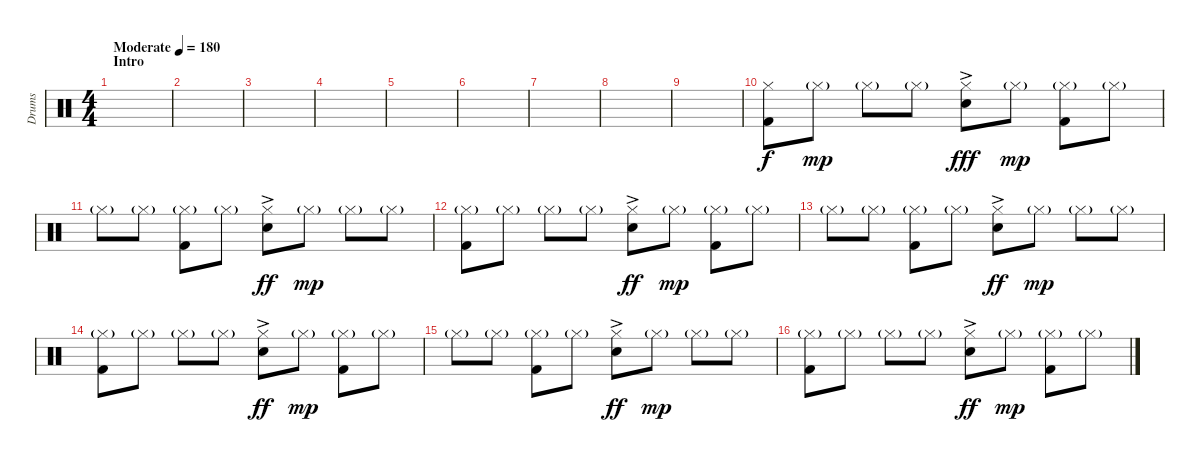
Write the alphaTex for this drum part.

\track ("Drums" "Drums") {instrument percussion}
\staff {score}
\articulation defaults
\ts (4 4)
\section ("" "Intro")
\tempo (180 "Moderate")
\clef neutral
\ks c
|
|
|
|
|
|
|
|
|
("Hi-Hat (closed)" "Kick (hit) 2").8 "Hi-Hat (closed)"{g}.8{dy mp} "Hi-Hat (closed)"{g}.8 "Hi-Hat (closed)"{g}.8 ("Hi-Hat (closed)"{ac} "Snare (hit) 2"{ac}).8{dy fff} "Hi-Hat (closed)"{g}.8{dy mp} ("Hi-Hat (closed)"{g} "Kick (hit) 2").8 "Hi-Hat (closed)"{g}.8 |
"Hi-Hat (closed)"{g}.8 "Hi-Hat (closed)"{g}.8 ("Hi-Hat (closed)"{g} "Kick (hit) 2").8 "Hi-Hat (closed)"{g}.8 ("Hi-Hat (closed)"{ac} "Snare (hit) 2"{ac}).8{dy ff} "Hi-Hat (closed)"{g}.8{dy mp} "Hi-Hat (closed)"{g}.8 "Hi-Hat (closed)"{g}.8 |
("Hi-Hat (closed)"{g} "Kick (hit) 2").8 "Hi-Hat (closed)"{g}.8 "Hi-Hat (closed)"{g}.8 "Hi-Hat (closed)"{g}.8 ("Hi-Hat (closed)"{ac} "Snare (hit) 2"{ac}).8{dy ff} "Hi-Hat (closed)"{g}.8{dy mp} ("Hi-Hat (closed)"{g} "Kick (hit) 2").8 "Hi-Hat (closed)"{g}.8 |
"Hi-Hat (closed)"{g}.8 "Hi-Hat (closed)"{g}.8 ("Hi-Hat (closed)"{g} "Kick (hit) 2").8 "Hi-Hat (closed)"{g}.8 ("Hi-Hat (closed)"{ac} "Snare (hit) 2"{ac}).8{dy ff} "Hi-Hat (closed)"{g}.8{dy mp} "Hi-Hat (closed)"{g}.8 "Hi-Hat (closed)"{g}.8 |
("Hi-Hat (closed)"{g} "Kick (hit) 2").8 "Hi-Hat (closed)"{g}.8 "Hi-Hat (closed)"{g}.8 "Hi-Hat (closed)"{g}.8 ("Hi-Hat (closed)"{ac} "Snare (hit) 2"{ac}).8{dy ff} "Hi-Hat (closed)"{g}.8{dy mp} ("Hi-Hat (closed)"{g} "Kick (hit) 2").8 "Hi-Hat (closed)"{g}.8 |
"Hi-Hat (closed)"{g}.8 "Hi-Hat (closed)"{g}.8 ("Hi-Hat (closed)"{g} "Kick (hit) 2").8 "Hi-Hat (closed)"{g}.8 ("Hi-Hat (closed)"{ac} "Snare (hit) 2"{ac}).8{dy ff} "Hi-Hat (closed)"{g}.8{dy mp} "Hi-Hat (closed)"{g}.8 "Hi-Hat (closed)"{g}.8 |
("Hi-Hat (closed)"{g} "Kick (hit) 2").8 "Hi-Hat (closed)"{g}.8 "Hi-Hat (closed)"{g}.8 "Hi-Hat (closed)"{g}.8 ("Hi-Hat (closed)"{ac} "Snare (hit) 2"{ac}).8{dy ff} "Hi-Hat (closed)"{g}.8{dy mp} ("Hi-Hat (closed)"{g} "Kick (hit) 2").8 "Hi-Hat (closed)"{g}.8
